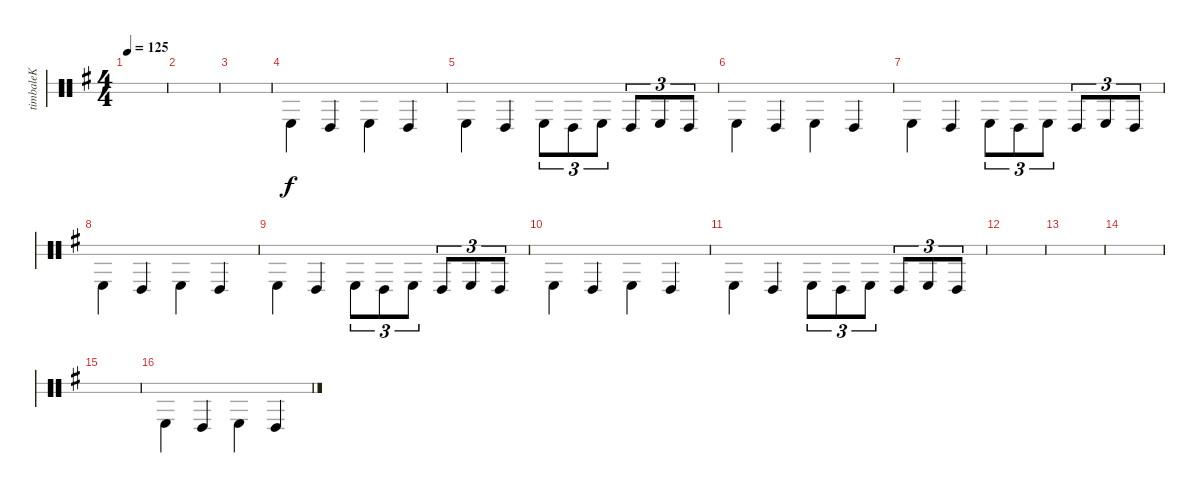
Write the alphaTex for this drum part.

\defaultSystemsLayout 4
\bracketExtendMode groupsimilarinstruments
\otherSystemsTrackNameOrientation horizontal
\track ("Timbale" "timbaleK") {instrument percussion}
\staff {score 2}
\articulation defaults
\ts (4 4)
\tempo 125
\clef neutral
\scale
0.333333
\ks g
|
\scale
0.333333 |
\scale
0.333333 |
\scale
0.333333 "Timbale high (hit)"{acc forcenatural}.4{beam Down} "Timbale low (hit)"{acc forcenatural}.4{beam Up} "Timbale high (hit)"{acc forcenatural}.4{beam Down} "Timbale low (hit)"{acc forcenatural}.4{beam Up} |
\scale
0.333333 "Timbale high (hit)"{acc forcenatural}.4{beam Down} "Timbale low (hit)"{acc forcenatural}.4{beam Up} "Timbale high (hit)"{acc forcenatural}.8{tu (3 2) beam Down} "Timbale low (hit)"{acc forcenatural}.8{tu (3 2) beam Down} "Timbale high (hit)"{acc forcenatural}.8{tu (3 2) beam Down} "Timbale low (hit)"{acc forcenatural}.8{tu (3 2) beam Up} "Timbale high (hit)"{acc forcenatural}.8{tu (3 2) beam Up} "Timbale low (hit)"{acc forcenatural}.8{tu (3 2) beam Up} |
\scale
0.333333 "Timbale high (hit)"{acc forcenatural}.4{beam Down} "Timbale low (hit)"{acc forcenatural}.4{beam Up} "Timbale high (hit)"{acc forcenatural}.4{beam Down} "Timbale low (hit)"{acc forcenatural}.4{beam Up} |
\scale
0.333333 "Timbale high (hit)"{acc forcenatural}.4{beam Down} "Timbale low (hit)"{acc forcenatural}.4{beam Up} "Timbale high (hit)"{acc forcenatural}.8{tu (3 2) beam Down} "Timbale low (hit)"{acc forcenatural}.8{tu (3 2) beam Down} "Timbale high (hit)"{acc forcenatural}.8{tu (3 2) beam Down} "Timbale low (hit)"{acc forcenatural}.8{tu (3 2) beam Up} "Timbale high (hit)"{acc forcenatural}.8{tu (3 2) beam Up} "Timbale low (hit)"{acc forcenatural}.8{tu (3 2) beam Up} |
\scale
0.333333 "Timbale high (hit)"{acc forcenatural}.4{beam Down} "Timbale low (hit)"{acc forcenatural}.4{beam Up} "Timbale high (hit)"{acc forcenatural}.4{beam Down} "Timbale low (hit)"{acc forcenatural}.4{beam Up} |
\scale
0.333333 "Timbale high (hit)"{acc forcenatural}.4{beam Down} "Timbale low (hit)"{acc forcenatural}.4{beam Up} "Timbale high (hit)"{acc forcenatural}.8{tu (3 2) beam Down} "Timbale low (hit)"{acc forcenatural}.8{tu (3 2) beam Down} "Timbale high (hit)"{acc forcenatural}.8{tu (3 2) beam Down} "Timbale low (hit)"{acc forcenatural}.8{tu (3 2) beam Up} "Timbale high (hit)"{acc forcenatural}.8{tu (3 2) beam Up} "Timbale low (hit)"{acc forcenatural}.8{tu (3 2) beam Up} |
\scale
0.333333 "Timbale high (hit)"{acc forcenatural}.4{beam Down} "Timbale low (hit)"{acc forcenatural}.4{beam Up} "Timbale high (hit)"{acc forcenatural}.4{beam Down} "Timbale low (hit)"{acc forcenatural}.4{beam Up} |
\scale
0.333333 "Timbale high (hit)"{acc forcenatural}.4{beam Down} "Timbale low (hit)"{acc forcenatural}.4{beam Up} "Timbale high (hit)"{acc forcenatural}.8{tu (3 2) beam Down} "Timbale low (hit)"{acc forcenatural}.8{tu (3 2) beam Down} "Timbale high (hit)"{acc forcenatural}.8{tu (3 2) beam Down} "Timbale low (hit)"{acc forcenatural}.8{tu (3 2) beam Up} "Timbale high (hit)"{acc forcenatural}.8{tu (3 2) beam Up} "Timbale low (hit)"{acc forcenatural}.8{tu (3 2) beam Up} |
\scale
0.333333 |
\scale
0.333333 |
\scale
0.333333 |
\scale
0.333333 |
\scale
0.333333 "Timbale high (hit)"{acc forcenatural}.4{beam Down} "Timbale low (hit)"{acc forcenatural}.4{beam Up} "Timbale high (hit)"{acc forcenatural}.4{beam Down} "Timbale low (hit)"{acc forcenatural}.4{beam Up}
